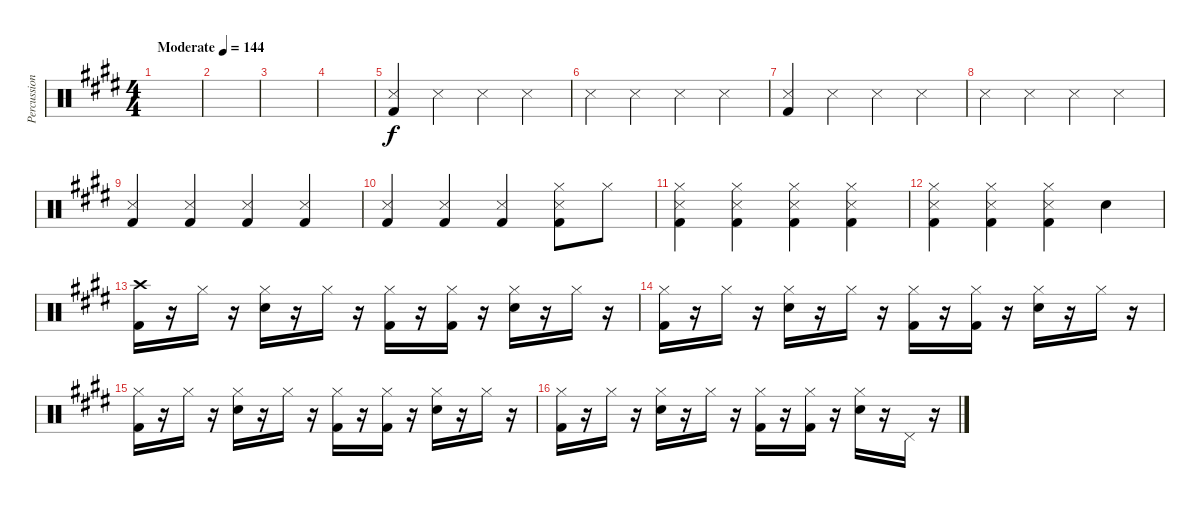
\track ("Percussion" "Percussion") {instrument percussion}
\staff {score}
\articulation defaults
\ts (4 4)
\tempo (144 "Moderate")
\clef neutral
\ks e
|
|
|
|
("Snare (side stick) 3" "Kick (hit) 2").4 "Snare (side stick) 3".4 "Snare (side stick) 3".4 "Snare (side stick) 3".4 |
"Snare (side stick) 3".4 "Snare (side stick) 3".4 "Snare (side stick) 3".4 "Snare (side stick) 3".4 |
("Snare (side stick) 3" "Kick (hit) 2").4 "Snare (side stick) 3".4 "Snare (side stick) 3".4 "Snare (side stick) 3".4 |
"Snare (side stick) 3".4 "Snare (side stick) 3".4 "Snare (side stick) 3".4 "Snare (side stick) 3".4 |
("Snare (side stick) 3" "Kick (hit) 2").4 ("Snare (side stick) 3" "Kick (hit) 2").4 ("Snare (side stick) 3" "Kick (hit) 2").4 ("Snare (side stick) 3" "Kick (hit) 2").4 |
("Snare (side stick) 3" "Kick (hit) 2").4 ("Snare (side stick) 3" "Kick (hit) 2").4 ("Snare (side stick) 3" "Kick (hit) 2").4 ("Hi-Hat (closed)" "Snare (side stick) 3" "Kick (hit) 2").8 "Hi-Hat (closed)".8 |
("Hi-Hat (closed)" "Snare (side stick) 3" "Kick (hit) 2").4 ("Hi-Hat (closed)" "Snare (side stick) 3" "Kick (hit) 2").4 ("Hi-Hat (closed)" "Snare (side stick) 3" "Kick (hit) 2").4 ("Hi-Hat (closed)" "Snare (side stick) 3" "Kick (hit) 2").4 |
("Hi-Hat (closed)" "Snare (side stick) 3" "Kick (hit) 2").4 ("Hi-Hat (closed)" "Snare (side stick) 3" "Kick (hit) 2").4 ("Hi-Hat (closed)" "Snare (side stick) 3" "Kick (hit) 2").4 "Snare (hit) 2".4 |
("Crash high (hit)" "Kick (hit) 2").16 r.16 "Hi-Hat (closed)".16 r.16 ("Hi-Hat (closed)" "Snare (hit) 2").16 r.16 "Hi-Hat (closed)".16 r.16 ("Hi-Hat (closed)" "Kick (hit) 2").16 r.16 ("Hi-Hat (closed)" "Kick (hit) 2").16 r.16 ("Hi-Hat (closed)" "Snare (hit) 2").16 r.16 "Hi-Hat (closed)".16 r.16 |
("Hi-Hat (closed)" "Kick (hit) 2").16 r.16 "Hi-Hat (closed)".16 r.16 ("Hi-Hat (closed)" "Snare (hit) 2").16 r.16 "Hi-Hat (closed)".16 r.16 ("Hi-Hat (closed)" "Kick (hit) 2").16 r.16 ("Hi-Hat (closed)" "Kick (hit) 2").16 r.16 ("Hi-Hat (closed)" "Snare (hit) 2").16 r.16 "Hi-Hat (closed)".16 r.16 |
("Hi-Hat (closed)" "Kick (hit) 2").16 r.16 "Hi-Hat (closed)".16 r.16 ("Hi-Hat (closed)" "Snare (hit) 2").16 r.16 "Hi-Hat (closed)".16 r.16 ("Hi-Hat (closed)" "Kick (hit) 2").16 r.16 ("Hi-Hat (closed)" "Kick (hit) 2").16 r.16 ("Hi-Hat (closed)" "Snare (hit) 2").16 r.16 "Hi-Hat (closed)".16 r.16 |
("Hi-Hat (closed)" "Kick (hit) 2").16 r.16 "Hi-Hat (closed)".16 r.16 ("Hi-Hat (closed)" "Snare (hit) 2").16 r.16 "Hi-Hat (closed)".16 r.16 ("Hi-Hat (closed)" "Kick (hit) 2").16 r.16 ("Hi-Hat (closed)" "Kick (hit) 2").16 r.16 ("Hi-Hat (closed)" "Snare (hit) 2").16 r.16 "Pedal Hi-Hat (hit)".16 r.16
